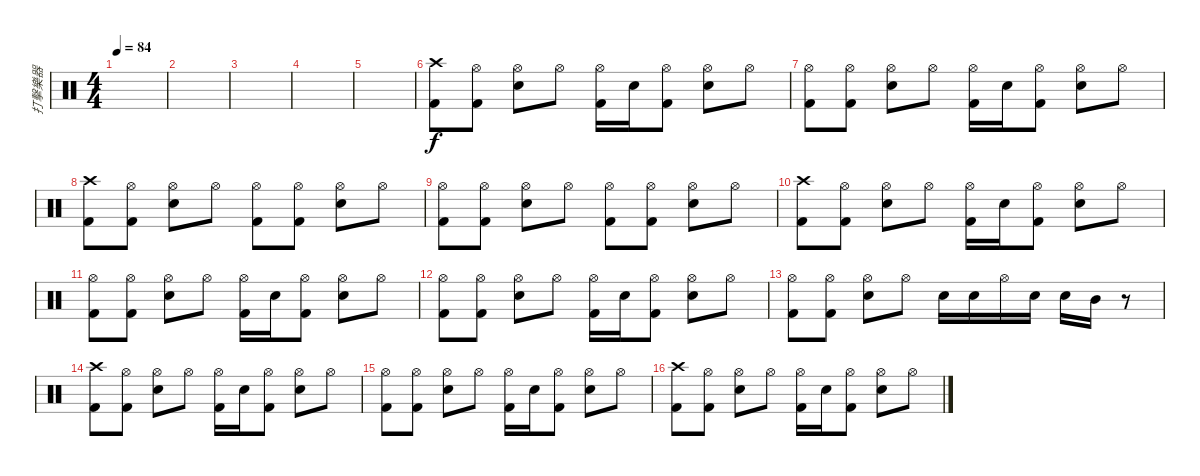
\track ("打擊樂器" "打擊樂器") {instrument percussion}
\staff {score}
\articulation defaults
\ts (4 4)
\tempo 84
\clef neutral
\ks c
|
|
|
|
|
("Crash high (hit)" "Kick (hit) 2").8 ("Hi-Hat (open)" "Kick (hit) 2").8 ("Hi-Hat (open)" "Snare (hit) 2").8 "Hi-Hat (open)".8 ("Hi-Hat (open)" "Kick (hit) 2").16 "Snare (hit) 2".16 ("Hi-Hat (open)" "Kick (hit) 2").8 ("Hi-Hat (open)" "Snare (hit) 2").8 "Hi-Hat (open)".8 |
("Hi-Hat (open)" "Kick (hit) 2").8 ("Hi-Hat (open)" "Kick (hit) 2").8 ("Hi-Hat (open)" "Snare (hit) 2").8 "Hi-Hat (open)".8 ("Hi-Hat (open)" "Kick (hit) 2").16 "Snare (hit) 2".16 ("Hi-Hat (open)" "Kick (hit) 2").8 ("Hi-Hat (open)" "Snare (hit) 2").8 "Hi-Hat (open)".8 |
("Crash high (hit)" "Kick (hit) 2").8 ("Hi-Hat (open)" "Kick (hit) 2").8 ("Hi-Hat (open)" "Snare (hit) 2").8 "Hi-Hat (open)".8 ("Hi-Hat (open)" "Kick (hit) 2").8 ("Hi-Hat (open)" "Kick (hit) 2").8 ("Hi-Hat (open)" "Snare (hit) 2").8 "Hi-Hat (open)".8 |
("Hi-Hat (open)" "Kick (hit) 2").8 ("Hi-Hat (open)" "Kick (hit) 2").8 ("Hi-Hat (open)" "Snare (hit) 2").8 "Hi-Hat (open)".8 ("Hi-Hat (open)" "Kick (hit) 2").8 ("Hi-Hat (open)" "Kick (hit) 2").8 ("Hi-Hat (open)" "Snare (hit) 2").8 "Hi-Hat (open)".8 |
("Crash high (hit)" "Kick (hit) 2").8 ("Hi-Hat (open)" "Kick (hit) 2").8 ("Hi-Hat (open)" "Snare (hit) 2").8 "Hi-Hat (open)".8 ("Hi-Hat (open)" "Kick (hit) 2").16 "Snare (hit) 2".16 ("Hi-Hat (open)" "Kick (hit) 2").8 ("Hi-Hat (open)" "Snare (hit) 2").8 "Hi-Hat (open)".8 |
("Hi-Hat (open)" "Kick (hit) 2").8 ("Hi-Hat (open)" "Kick (hit) 2").8 ("Hi-Hat (open)" "Snare (hit) 2").8 "Hi-Hat (open)".8 ("Hi-Hat (open)" "Kick (hit) 2").16 "Snare (hit) 2".16 ("Hi-Hat (open)" "Kick (hit) 2").8 ("Hi-Hat (open)" "Snare (hit) 2").8 "Hi-Hat (open)".8 |
("Hi-Hat (open)" "Kick (hit) 2").8 ("Hi-Hat (open)" "Kick (hit) 2").8 ("Hi-Hat (open)" "Snare (hit) 2").8 "Hi-Hat (open)".8 ("Hi-Hat (open)" "Kick (hit) 2").16 "Snare (hit) 2".16 ("Hi-Hat (open)" "Kick (hit) 2").8 ("Hi-Hat (open)" "Snare (hit) 2").8 "Hi-Hat (open)".8 |
("Hi-Hat (open)" "Kick (hit) 2").8 ("Hi-Hat (open)" "Kick (hit) 2").8 ("Hi-Hat (open)" "Snare (hit) 2").8 "Hi-Hat (open)".8 "Snare (hit) 2".16 "Snare (hit) 2".16 "Hi-Hat (open)".16 "Snare (hit) 2".16 "Snare (hit) 2".16 "Mid Tom (hit)".16 r.8 |
("Crash high (hit)" "Kick (hit) 2").8 ("Hi-Hat (open)" "Kick (hit) 2").8 ("Hi-Hat (open)" "Snare (hit) 2").8 "Hi-Hat (open)".8 ("Hi-Hat (open)" "Kick (hit) 2").16 "Snare (hit) 2".16 ("Hi-Hat (open)" "Kick (hit) 2").8 ("Hi-Hat (open)" "Snare (hit) 2").8 "Hi-Hat (open)".8 |
("Hi-Hat (open)" "Kick (hit) 2").8 ("Hi-Hat (open)" "Kick (hit) 2").8 ("Hi-Hat (open)" "Snare (hit) 2").8 "Hi-Hat (open)".8 ("Hi-Hat (open)" "Kick (hit) 2").16 "Snare (hit) 2".16 ("Hi-Hat (open)" "Kick (hit) 2").8 ("Hi-Hat (open)" "Snare (hit) 2").8 "Hi-Hat (open)".8 |
("Crash high (hit)" "Kick (hit) 2").8 ("Hi-Hat (open)" "Kick (hit) 2").8 ("Hi-Hat (open)" "Snare (hit) 2").8 "Hi-Hat (open)".8 ("Hi-Hat (open)" "Kick (hit) 2").16 "Snare (hit) 2".16 ("Hi-Hat (open)" "Kick (hit) 2").8 ("Hi-Hat (open)" "Snare (hit) 2").8 "Hi-Hat (open)".8
